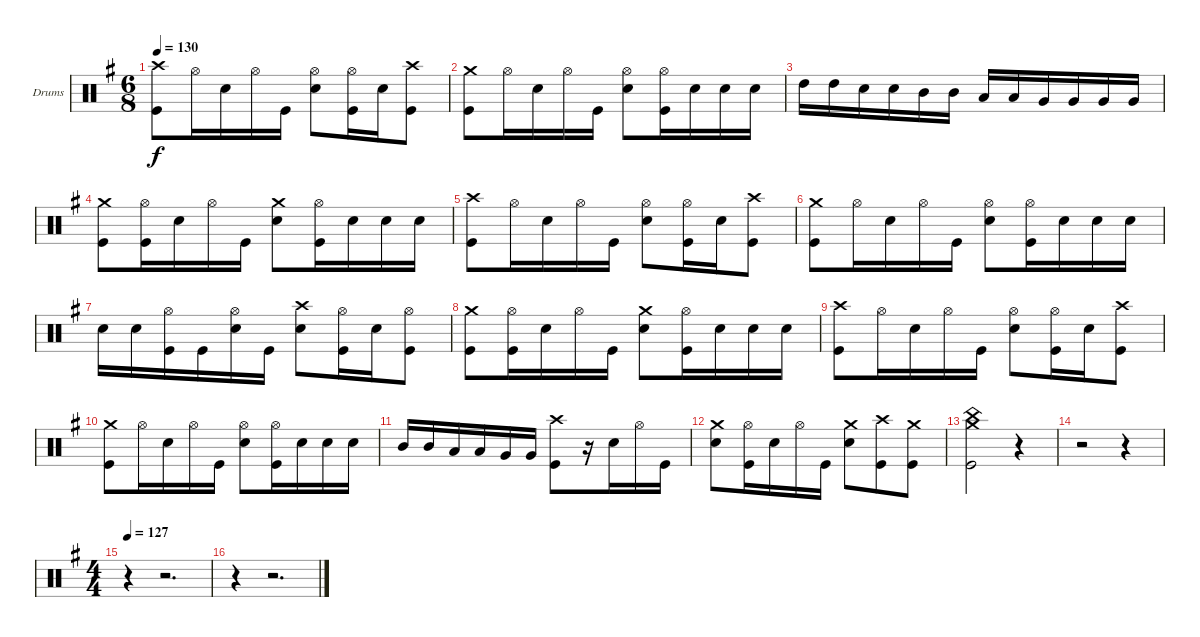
\bracketExtendMode groupsimilarinstruments
\firstSystemTrackNameOrientation horizontal
\otherSystemsTrackNameOrientation horizontal
\track ("drums (Anton Zulganov)" "Drums") {instrument percussion}
\staff {score}
\articulation defaults
\ts (6 8)
\tempo 130
\clef neutral
\ks eminor
("Kick (hit)" "Crash high (hit)").8{dy f} "Hi-Hat (open)".16 "Snare (hit) 2".16 "Hi-Hat (open)".16 "Kick (hit)".16 ("Snare (hit) 2" "Hi-Hat (open)").8 ("Kick (hit)" "Hi-Hat (open)").16 "Snare (hit) 2".16 ("Kick (hit)" "Crash high (hit)").8 |
("Kick (hit)" "Crash medium (hit)").8 "Hi-Hat (open)".16 "Snare (hit) 2".16 "Hi-Hat (open)".16 "Kick (hit)".16 ("Snare (hit) 2" "Hi-Hat (open)").8 ("Kick (hit)" "Hi-Hat (open)").16 "Snare (hit) 2".16 "Snare (hit) 2".16 "Snare (hit) 2".16 |
"High Tom (hit)".16 "High Tom (hit)".16 "Snare (hit) 2".16 "Snare (hit) 2".16 "Mid Tom (hit)".16 "Mid Tom (hit)".16 "Low Tom (hit)".16 "Low Tom (hit)".16 "Very Low Tom (hit)".16 "Very Low Tom (hit)".16 "Very Low Tom (hit)".16 "Very Low Tom (hit)".16 |
("Kick (hit)" "Crash medium (hit)").8 ("Kick (hit)" "Hi-Hat (open)").16 "Snare (hit) 2".16 "Hi-Hat (open)".16 "Kick (hit)".16 ("Snare (hit) 2" "Crash medium (hit)").8 ("Kick (hit)" "Hi-Hat (open)").16 "Snare (hit) 2".16 "Snare (hit) 2".16 "Snare (hit) 2".16 |
("Kick (hit)" "Crash high (hit)").8 "Hi-Hat (open)".16 "Snare (hit) 2".16 "Hi-Hat (open)".16 "Kick (hit)".16 ("Snare (hit) 2" "Hi-Hat (open)").8 ("Kick (hit)" "Hi-Hat (open)").16 "Snare (hit) 2".16 ("Kick (hit)" "Crash high (hit)").8 |
("Kick (hit)" "Crash medium (hit)").8 "Hi-Hat (open)".16 "Snare (hit) 2".16 "Hi-Hat (open)".16 "Kick (hit)".16 ("Snare (hit) 2" "Hi-Hat (open)").8 ("Kick (hit)" "Hi-Hat (open)").16 "Snare (hit) 2".16 "Snare (hit) 2".16 "Snare (hit) 2".16 |
"Snare (hit) 2".16 "Snare (hit) 2".16 ("Kick (hit)" "Hi-Hat (open)").16 "Kick (hit)".16 ("Snare (hit) 2" "Hi-Hat (open)").16 "Kick (hit)".16 ("Snare (hit) 2" "Crash high (hit)").8 ("Kick (hit)" "Hi-Hat (open)").16 "Snare (hit) 2".16 ("Kick (hit)" "Hi-Hat (open)").8 |
("Kick (hit)" "Crash medium (hit)").8 ("Kick (hit)" "Hi-Hat (open)").16 "Snare (hit) 2".16 "Hi-Hat (open)".16 "Kick (hit)".16 ("Snare (hit) 2" "Crash medium (hit)").8 ("Kick (hit)" "Hi-Hat (open)").16 "Snare (hit) 2".16 "Snare (hit) 2".16 "Snare (hit) 2".16 |
("Kick (hit)" "Crash high (hit)").8 "Hi-Hat (open)".16 "Snare (hit) 2".16 "Hi-Hat (open)".16 "Kick (hit)".16 ("Snare (hit) 2" "Hi-Hat (open)").8 ("Kick (hit)" "Hi-Hat (open)").16 "Snare (hit) 2".16 ("Kick (hit)" "Crash high (hit)").8 |
("Kick (hit)" "Crash medium (hit)").8 "Hi-Hat (open)".16 "Snare (hit) 2".16 "Hi-Hat (open)".16 "Kick (hit)".16 ("Snare (hit) 2" "Hi-Hat (open)").8 ("Kick (hit)" "Hi-Hat (open)").16 "Snare (hit) 2".16 "Snare (hit) 2".16 "Snare (hit) 2".16 |
"Mid Tom (hit)".16 "Mid Tom (hit)".16 "Low Tom (hit)".16 "Low Tom (hit)".16 "Very Low Tom (hit)".16 "Very Low Tom (hit)".16 ("Kick (hit)" "Crash high (hit)").8 r.16 "Snare (hit) 2".16 "Hi-Hat (open)".16 "Kick (hit)".16 |
("Snare (hit) 2" "Crash medium (hit)").8 ("Kick (hit)" "Hi-Hat (open)").16 "Snare (hit) 2".16 "Hi-Hat (open)".16 "Kick (hit)".16 ("Snare (hit) 2" "Crash medium (hit)").8 ("Kick (hit)" "Crash high (hit)").8 ("Kick (hit)" "Crash medium (hit)").8 |
("Kick (hit)" "Crash medium (hit)" "China (hit)").2 r.4 |
r.2 r.4 |
\ts (4 4)
\beaming (8 2 2 2 2)
\tempo 127
r.4 r.2{d} |
r.4 r.2{d}
